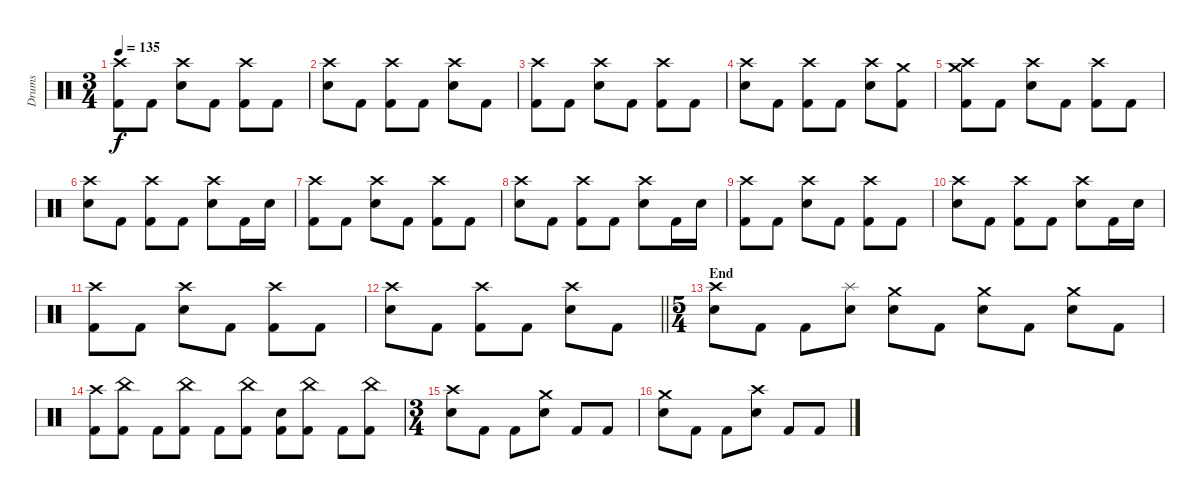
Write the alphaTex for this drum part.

\track ("Drums" "Drums") {instrument percussion}
\staff {score}
\articulation defaults
\ts (3 4)
\tempo 135
\clef neutral
\ks c
("Crash high (hit)" "Kick (hit) 2").8{dy f} "Kick (hit) 2".8 ("Crash high (hit)" "Snare (hit) 2").8 "Kick (hit) 2".8 ("Crash high (hit)" "Kick (hit) 2").8 "Kick (hit) 2".8 |
("Crash high (hit)" "Snare (hit) 2").8 "Kick (hit) 2".8 ("Crash high (hit)" "Kick (hit) 2").8 "Kick (hit) 2".8 ("Crash high (hit)" "Snare (hit) 2").8 "Kick (hit) 2".8 |
("Crash high (hit)" "Kick (hit) 2").8 "Kick (hit) 2".8 ("Crash high (hit)" "Snare (hit) 2").8 "Kick (hit) 2".8 ("Crash high (hit)" "Kick (hit) 2").8 "Kick (hit) 2".8 |
("Crash high (hit)" "Snare (hit) 2").8 "Kick (hit) 2".8 ("Crash high (hit)" "Kick (hit) 2").8 "Kick (hit) 2".8 ("Crash high (hit)" "Snare (hit) 2").8 ("Crash medium (hit)" "Kick (hit) 2").8 |
("Crash high (hit)" "Crash medium (hit)" "Kick (hit) 2").8 "Kick (hit) 2".8 ("Crash high (hit)" "Snare (hit) 2").8 "Kick (hit) 2".8 ("Crash high (hit)" "Kick (hit) 2").8 "Kick (hit) 2".8 |
("Crash high (hit)" "Snare (hit) 2").8 "Kick (hit) 2".8 ("Crash high (hit)" "Kick (hit) 2").8 "Kick (hit) 2".8 ("Crash high (hit)" "Snare (hit) 2").8 "Kick (hit) 2".16 "Snare (hit) 2".16 |
("Crash high (hit)" "Kick (hit) 2").8 "Kick (hit) 2".8 ("Crash high (hit)" "Snare (hit) 2").8 "Kick (hit) 2".8 ("Crash high (hit)" "Kick (hit) 2").8 "Kick (hit) 2".8 |
("Crash high (hit)" "Snare (hit) 2").8 "Kick (hit) 2".8 ("Crash high (hit)" "Kick (hit) 2").8 "Kick (hit) 2".8 ("Crash high (hit)" "Snare (hit) 2").8 "Kick (hit) 2".16 "Snare (hit) 2".16 |
("Crash high (hit)" "Kick (hit) 2").8 "Kick (hit) 2".8 ("Crash high (hit)" "Snare (hit) 2").8 "Kick (hit) 2".8 ("Crash high (hit)" "Kick (hit) 2").8 "Kick (hit) 2".8 |
("Crash high (hit)" "Snare (hit) 2").8 "Kick (hit) 2".8 ("Crash high (hit)" "Kick (hit) 2").8 "Kick (hit) 2".8 ("Crash high (hit)" "Snare (hit) 2").8 "Kick (hit) 2".16 "Snare (hit) 2".16 |
("Crash high (hit)" "Kick (hit) 2").8 "Kick (hit) 2".8 ("Crash high (hit)" "Snare (hit) 2").8 "Kick (hit) 2".8 ("Crash high (hit)" "Kick (hit) 2").8 "Kick (hit) 2".8 |
\barLineRight lightlight
("Crash high (hit)" "Snare (hit) 2").8 "Kick (hit) 2".8 ("Crash high (hit)" "Kick (hit) 2").8 "Kick (hit) 2".8 ("Crash high (hit)" "Snare (hit) 2").8 "Kick (hit) 2".8 |
\ts (5 4)
\section ("" "End")
("Crash high (hit)" "Snare (hit) 2").8 "Kick (hit) 2".8 "Kick (hit) 2".8 ("Splash (hit)" "Snare (hit) 2").8 ("Crash medium (hit)" "Snare (hit) 2").8 "Kick (hit) 2".8 ("Crash medium (hit)" "Snare (hit) 2").8 "Kick (hit) 2".8 ("Crash medium (hit)" "Snare (hit) 2").8 "Kick (hit) 2".8 |
("Crash high (hit)" "Kick (hit) 2").8 ("China (hit)" "Kick (hit) 2").8 "Kick (hit) 2".8 ("China (hit)" "Kick (hit) 2").8 "Kick (hit) 2".8 ("China (hit)" "Kick (hit) 2").8 ("Snare (hit) 2" "Kick (hit) 2").8 ("China (hit)" "Kick (hit) 2").8 "Kick (hit) 2".8 ("China (hit)" "Kick (hit) 2").8 |
\ts (3 4)
("Crash high (hit)" "Snare (hit) 2").8 "Kick (hit) 2".8 "Kick (hit) 2".8 ("Crash medium (hit)" "Snare (hit) 2").8 "Kick (hit) 2".8 "Kick (hit) 2".8 |
("Crash medium (hit)" "Snare (hit) 2").8 "Kick (hit) 2".8 "Kick (hit) 2".8 ("Crash high (hit)" "Snare (hit) 2").8 "Kick (hit) 2".8 "Kick (hit) 2".8
